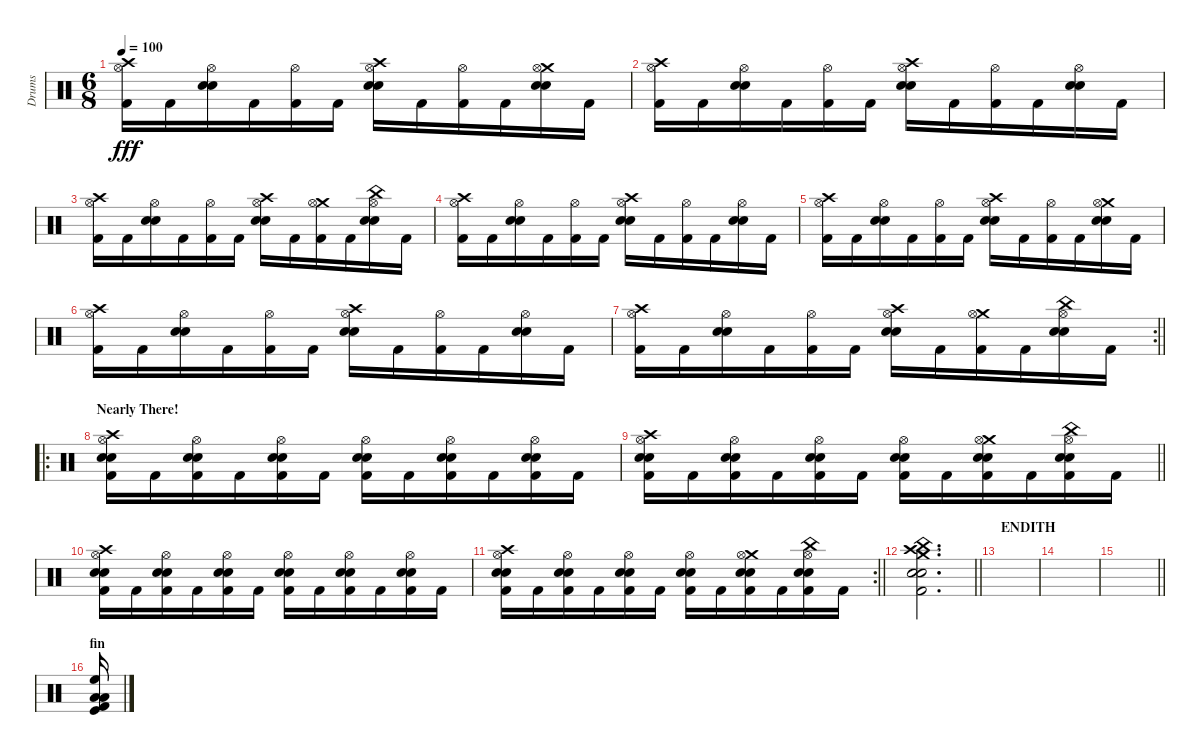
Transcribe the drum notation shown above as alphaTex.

\track ("Drums" "Drums") {instrument percussion}
\staff {score}
\articulation defaults
\ts (6 8)
\tempo 100
\clef neutral
\ks c
("Crash high (hit)" "Hi-Hat (open)" "Kick (hit) 2").16{dy fff} "Kick (hit) 2".16 ("Hi-Hat (open)" "Snare (hit) 2" "Electric Snare (hit)").16 "Kick (hit) 2".16 ("Hi-Hat (open)" "Kick (hit) 2").16 "Kick (hit) 2".16 ("Crash high (hit)" "Hi-Hat (open)" "Snare (hit) 2" "Electric Snare (hit)").16 "Kick (hit) 2".16 ("Hi-Hat (open)" "Kick (hit) 2").16 "Kick (hit) 2".16 ("Crash medium (hit)" "Hi-Hat (open)" "Snare (hit) 2" "Electric Snare (hit)").16 "Kick (hit) 2".16 |
("Crash high (hit)" "Hi-Hat (open)" "Kick (hit) 2").16 "Kick (hit) 2".16 ("Hi-Hat (open)" "Snare (hit) 2" "Electric Snare (hit)").16 "Kick (hit) 2".16 ("Hi-Hat (open)" "Kick (hit) 2").16 "Kick (hit) 2".16 ("Crash high (hit)" "Hi-Hat (open)" "Snare (hit) 2" "Electric Snare (hit)").16 "Kick (hit) 2".16 ("Hi-Hat (open)" "Kick (hit) 2").16 "Kick (hit) 2".16 ("Hi-Hat (open)" "Snare (hit) 2" "Electric Snare (hit)").16 "Kick (hit) 2".16 |
("Crash high (hit)" "Hi-Hat (open)" "Kick (hit) 2").16 "Kick (hit) 2".16 ("Hi-Hat (open)" "Snare (hit) 2" "Electric Snare (hit)").16 "Kick (hit) 2".16 ("Hi-Hat (open)" "Kick (hit) 2").16 "Kick (hit) 2".16 ("Crash high (hit)" "Hi-Hat (open)" "Snare (hit) 2" "Electric Snare (hit)").16 "Kick (hit) 2".16 ("Crash medium (hit)" "Hi-Hat (open)" "Kick (hit) 2").16 "Kick (hit) 2".16 ("China (hit)" "Hi-Hat (open)" "Snare (hit) 2" "Electric Snare (hit)").16 "Kick (hit) 2".16 |
("Crash high (hit)" "Hi-Hat (open)" "Kick (hit) 2").16 "Kick (hit) 2".16 ("Hi-Hat (open)" "Snare (hit) 2" "Electric Snare (hit)").16 "Kick (hit) 2".16 ("Hi-Hat (open)" "Kick (hit) 2").16 "Kick (hit) 2".16 ("Crash high (hit)" "Hi-Hat (open)" "Snare (hit) 2" "Electric Snare (hit)").16 "Kick (hit) 2".16 ("Hi-Hat (open)" "Kick (hit) 2").16 "Kick (hit) 2".16 ("Hi-Hat (open)" "Snare (hit) 2" "Electric Snare (hit)").16 "Kick (hit) 2".16 |
("Crash high (hit)" "Hi-Hat (open)" "Kick (hit) 2").16 "Kick (hit) 2".16 ("Hi-Hat (open)" "Snare (hit) 2" "Electric Snare (hit)").16 "Kick (hit) 2".16 ("Hi-Hat (open)" "Kick (hit) 2").16 "Kick (hit) 2".16 ("Crash high (hit)" "Hi-Hat (open)" "Snare (hit) 2" "Electric Snare (hit)").16 "Kick (hit) 2".16 ("Hi-Hat (open)" "Kick (hit) 2").16 "Kick (hit) 2".16 ("Crash medium (hit)" "Hi-Hat (open)" "Snare (hit) 2" "Electric Snare (hit)").16 "Kick (hit) 2".16 |
("Crash high (hit)" "Hi-Hat (open)" "Kick (hit) 2").16 "Kick (hit) 2".16 ("Hi-Hat (open)" "Snare (hit) 2" "Electric Snare (hit)").16 "Kick (hit) 2".16 ("Hi-Hat (open)" "Kick (hit) 2").16 "Kick (hit) 2".16 ("Crash high (hit)" "Hi-Hat (open)" "Snare (hit) 2" "Electric Snare (hit)").16 "Kick (hit) 2".16 ("Hi-Hat (open)" "Kick (hit) 2").16 "Kick (hit) 2".16 ("Hi-Hat (open)" "Snare (hit) 2" "Electric Snare (hit)").16 "Kick (hit) 2".16 |
\rc 2
\barLineRight lightlight
("Crash high (hit)" "Hi-Hat (open)" "Kick (hit) 2").16 "Kick (hit) 2".16 ("Hi-Hat (open)" "Snare (hit) 2" "Electric Snare (hit)").16 "Kick (hit) 2".16 ("Hi-Hat (open)" "Kick (hit) 2").16 "Kick (hit) 2".16 ("Crash high (hit)" "Hi-Hat (open)" "Snare (hit) 2" "Electric Snare (hit)").16 "Kick (hit) 2".16 ("Crash medium (hit)" "Hi-Hat (open)" "Kick (hit) 2").16 "Kick (hit) 2".16 ("China (hit)" "Hi-Hat (open)" "Snare (hit) 2" "Electric Snare (hit)").16 "Kick (hit) 2".16 |
\ro
\section ("" "Nearly There!")
("Crash high (hit)" "Hi-Hat (open)" "Snare (hit) 2" "Electric Snare (hit)" "Kick (hit) 2").16 "Kick (hit) 2".16 ("Hi-Hat (open)" "Snare (hit) 2" "Electric Snare (hit)" "Kick (hit) 2").16 "Kick (hit) 2".16 ("Hi-Hat (open)" "Snare (hit) 2" "Electric Snare (hit)" "Kick (hit) 2").16 "Kick (hit) 2".16 ("Hi-Hat (open)" "Snare (hit) 2" "Electric Snare (hit)" "Kick (hit) 2").16 "Kick (hit) 2".16 ("Hi-Hat (open)" "Snare (hit) 2" "Electric Snare (hit)" "Kick (hit) 2").16 "Kick (hit) 2".16 ("Hi-Hat (open)" "Snare (hit) 2" "Electric Snare (hit)" "Kick (hit) 2").16 "Kick (hit) 2".16 |
\barLineRight lightlight
("Crash high (hit)" "Hi-Hat (open)" "Snare (hit) 2" "Electric Snare (hit)" "Kick (hit) 2").16 "Kick (hit) 2".16 ("Hi-Hat (open)" "Snare (hit) 2" "Electric Snare (hit)" "Kick (hit) 2").16 "Kick (hit) 2".16 ("Hi-Hat (open)" "Snare (hit) 2" "Electric Snare (hit)" "Kick (hit) 2").16 "Kick (hit) 2".16 ("Hi-Hat (open)" "Snare (hit) 2" "Electric Snare (hit)" "Kick (hit) 2").16 "Kick (hit) 2".16 ("Crash medium (hit)" "Hi-Hat (open)" "Snare (hit) 2" "Electric Snare (hit)" "Kick (hit) 2").16 "Kick (hit) 2".16 ("China (hit)" "Hi-Hat (open)" "Snare (hit) 2" "Electric Snare (hit)" "Kick (hit) 2").16 "Kick (hit) 2".16 |
("Crash high (hit)" "Hi-Hat (open)" "Snare (hit) 2" "Electric Snare (hit)" "Kick (hit) 2").16 "Kick (hit) 2".16 ("Hi-Hat (open)" "Snare (hit) 2" "Electric Snare (hit)" "Kick (hit) 2").16 "Kick (hit) 2".16 ("Hi-Hat (open)" "Snare (hit) 2" "Electric Snare (hit)" "Kick (hit) 2").16 "Kick (hit) 2".16 ("Hi-Hat (open)" "Snare (hit) 2" "Electric Snare (hit)" "Kick (hit) 2").16 "Kick (hit) 2".16 ("Hi-Hat (open)" "Snare (hit) 2" "Electric Snare (hit)" "Kick (hit) 2").16 "Kick (hit) 2".16 ("Hi-Hat (open)" "Snare (hit) 2" "Electric Snare (hit)" "Kick (hit) 2").16 "Kick (hit) 2".16 |
\rc 2
\barLineRight lightlight
("Crash high (hit)" "Hi-Hat (open)" "Snare (hit) 2" "Electric Snare (hit)" "Kick (hit) 2").16 "Kick (hit) 2".16 ("Hi-Hat (open)" "Snare (hit) 2" "Electric Snare (hit)" "Kick (hit) 2").16 "Kick (hit) 2".16 ("Hi-Hat (open)" "Snare (hit) 2" "Electric Snare (hit)" "Kick (hit) 2").16 "Kick (hit) 2".16 ("Hi-Hat (open)" "Snare (hit) 2" "Electric Snare (hit)" "Kick (hit) 2").16 "Kick (hit) 2".16 ("Crash medium (hit)" "Hi-Hat (open)" "Snare (hit) 2" "Electric Snare (hit)" "Kick (hit) 2").16 "Kick (hit) 2".16 ("China (hit)" "Hi-Hat (open)" "Snare (hit) 2" "Electric Snare (hit)" "Kick (hit) 2").16 "Kick (hit) 2".16 |
\barLineRight lightlight
("Crash medium (hit)" "Crash high (hit)" "Snare (hit) 2" "Electric Snare (hit)" "China (hit)" "Kick (hit) 2").2{d} |
\section ("" "ENDITH")
|
|
\barLineRight lightlight
|
\section ("" "fin")
("Low Tom (hit)" "High Floor Tom (hit)" "Low Floor Tom (hit)" "Kick (hit)" "Kick (hit) 2").16
